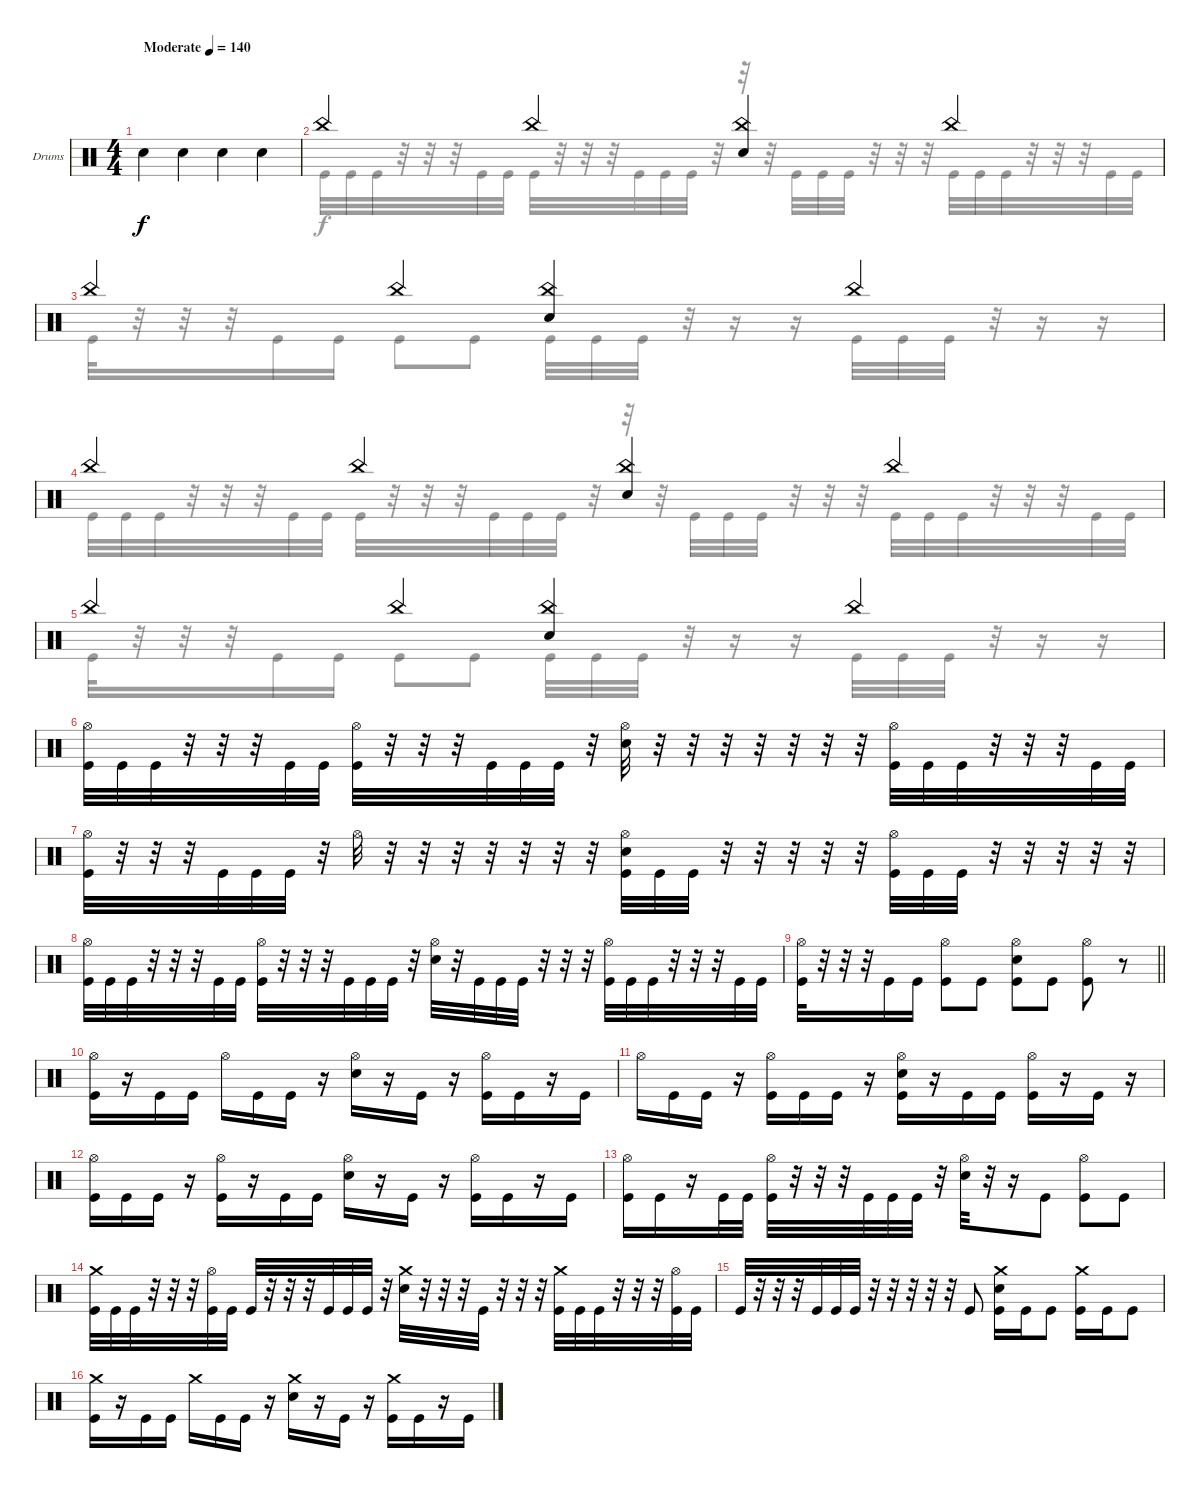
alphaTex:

\bracketExtendMode groupsimilarinstruments
\firstSystemTrackNameOrientation horizontal
\otherSystemsTrackNameOrientation horizontal
\track ("Drumkit" "Drums") {instrument percussion}
\staff {score}
\articulation defaults
\voice
\ts (4 4)
\beaming (8 2 2 2 2)
\tempo (140 "Moderate")
\clef neutral
\ks c "Snare (hit) 2".4{dy f} "Snare (hit) 2".4 "Snare (hit) 2".4 "Snare (hit) 2".4
|
"China (hit)".4 "China (hit)".4 ("China (hit)" "Snare (hit) 2").4 "China (hit)".4 |
"China (hit)".4 "China (hit)".4 ("China (hit)" "Snare (hit) 2").4 "China (hit)".4 |
"China (hit)".4 "China (hit)".4 ("China (hit)" "Snare (hit) 2").4 "China (hit)".4 |
"China (hit)".4 "China (hit)".4 ("China (hit)" "Snare (hit) 2").4 "China (hit)".4 |
("Kick (hit)" "Hi-Hat (open)").32 "Kick (hit)".32 "Kick (hit)".32 r.32 r.32 r.32 "Kick (hit)".32 "Kick (hit)".32 ("Kick (hit)" "Hi-Hat (open)").32 r.32 r.32 r.32 "Kick (hit)".32 "Kick (hit)".32 "Kick (hit)".32 r.32 ("Hi-Hat (open)" "Snare (hit) 2").32 r.32 r.32 r.32 r.32 r.32 r.32 r.32 ("Kick (hit)" "Hi-Hat (open)").32 "Kick (hit)".32 "Kick (hit)".32 r.32 r.32 r.32 "Kick (hit)".32 "Kick (hit)".32 |
("Kick (hit)" "Hi-Hat (open)").32 r.32 r.32 r.32 "Kick (hit)".32 "Kick (hit)".32 "Kick (hit)".32 r.32 "Hi-Hat (open)".32 r.32 r.32 r.32 r.32 r.32 r.32 r.32 ("Kick (hit)" "Hi-Hat (open)" "Snare (hit) 2").32 "Kick (hit)".32 "Kick (hit)".32 r.32 r.32 r.32 r.32 r.32 ("Kick (hit)" "Hi-Hat (open)").32 "Kick (hit)".32 "Kick (hit)".32 r.32 r.32 r.32 r.32 r.32 |
("Kick (hit)" "Hi-Hat (open)").32 "Kick (hit)".32 "Kick (hit)".32 r.32 r.32 r.32 "Kick (hit)".32 "Kick (hit)".32 ("Kick (hit)" "Hi-Hat (open)").32 r.32 r.32 r.32 "Kick (hit)".32 "Kick (hit)".32 "Kick (hit)".32 r.32 ("Hi-Hat (open)" "Snare (hit) 2").32 r.32 "Kick (hit)".32 "Kick (hit)".32 "Kick (hit)".32 r.32 r.32 r.32 ("Kick (hit)" "Hi-Hat (open)").32 "Kick (hit)".32 "Kick (hit)".32 r.32 r.32 r.32 "Kick (hit)".32 "Kick (hit)".32 |
\barLineRight lightlight
("Kick (hit)" "Hi-Hat (open)").32 r.32 r.32 r.32 "Kick (hit)".16 "Kick (hit)".16 ("Kick (hit)" "Hi-Hat (open)").8 "Kick (hit)".8 ("Kick (hit)" "Hi-Hat (open)" "Snare (hit) 2").8 "Kick (hit)".8 ("Kick (hit)" "Hi-Hat (open)").8 r.8 |
\section ("" "")
("Kick (hit)" "Hi-Hat (open)").16 r.16 "Kick (hit)".16 "Kick (hit)".16 "Hi-Hat (open)".16 "Kick (hit)".16 "Kick (hit)".16 r.16 ("Hi-Hat (open)" "Snare (hit) 2").16 r.16 "Kick (hit)".16 r.16 ("Kick (hit)" "Hi-Hat (open)").16 "Kick (hit)".16 r.16 "Kick (hit)".16 |
"Hi-Hat (open)".16 "Kick (hit)".16 "Kick (hit)".16 r.16 ("Kick (hit)" "Hi-Hat (open)").16 "Kick (hit)".16 "Kick (hit)".16 r.16 ("Kick (hit)" "Hi-Hat (open)" "Snare (hit) 2").16 r.16 "Kick (hit)".16 "Kick (hit)".16 ("Kick (hit)" "Hi-Hat (open)").16 r.16 "Kick (hit)".16 r.16 |
("Kick (hit)" "Hi-Hat (open)").16 "Kick (hit)".16 "Kick (hit)".16 r.16 ("Kick (hit)" "Hi-Hat (open)").16 r.16 "Kick (hit)".16 "Kick (hit)".16 ("Hi-Hat (open)" "Snare (hit) 2").16 r.16 "Kick (hit)".16 r.16 ("Kick (hit)" "Hi-Hat (open)").16 "Kick (hit)".16 r.16 "Kick (hit)".16 |
("Kick (hit)" "Hi-Hat (open)").16 "Kick (hit)".16 r.16 "Kick (hit)".32 "Kick (hit)".32 ("Kick (hit)" "Hi-Hat (open)").32 r.32 r.32 r.32 "Kick (hit)".32 "Kick (hit)".32 "Kick (hit)".32 r.32 ("Hi-Hat (open)" "Snare (hit) 2").32 r.32 r.16 "Kick (hit)".8 ("Kick (hit)" "Hi-Hat (open)").8 "Kick (hit)".8 |
("Kick (hit)" "Crash medium (hit)").32 "Kick (hit)".32 "Kick (hit)".32 r.32 r.32 r.32 ("Kick (hit)" "Hi-Hat (open)").32 "Kick (hit)".32 "Kick (hit)".32 r.32 r.32 r.32 "Kick (hit)".32 "Kick (hit)".32 "Kick (hit)".32 r.32 ("Crash medium (hit)" "Snare (hit) 2").32 r.32 r.32 r.32 "Kick (hit)".32 r.32 r.32 r.32 ("Kick (hit)" "Crash medium (hit)").32 "Kick (hit)".32 "Kick (hit)".32 r.32 r.32 r.32 ("Kick (hit)" "Hi-Hat (open)").32 "Kick (hit)".32 |
"Kick (hit)".32 r.32 r.32 r.32 "Kick (hit)".32 "Kick (hit)".32 "Kick (hit)".32 r.32 r.32 r.32 r.32 r.32 "Kick (hit)".8 ("Kick (hit)" "Crash medium (hit)" "Snare (hit) 2").16 "Kick (hit)".16 "Kick (hit)".8 ("Kick (hit)" "Crash medium (hit)").16 "Kick (hit)".16 "Kick (hit)".8 |
("Kick (hit)" "Crash medium (hit)").16 r.16 "Kick (hit)".16 "Kick (hit)".16 "Crash medium (hit)".16 "Kick (hit)".16 "Kick (hit)".16 r.16 ("Crash medium (hit)" "Snare (hit) 2").16 r.16 "Kick (hit)".16 r.16 ("Kick (hit)" "Crash medium (hit)").16 "Kick (hit)".16 r.16 "Kick (hit)".16
\voice
\clef neutral
\ottava regular
\simile none
\ks c
|
"Kick (hit)".32 "Kick (hit)".32 "Kick (hit)".32 r.32 r.32 r.32 "Kick (hit)".32 "Kick (hit)".32 "Kick (hit)".32 r.32 r.32 r.32 "Kick (hit)".32 "Kick (hit)".32 "Kick (hit)".32 r.32 r.32 r.32 "Kick (hit)".32 "Kick (hit)".32 "Kick (hit)".32 r.32 r.32 r.32 "Kick (hit)".32 "Kick (hit)".32 "Kick (hit)".32 r.32 r.32 r.32 "Kick (hit)".32 "Kick (hit)".32 |
"Kick (hit)".32 r.32 r.32 r.32 "Kick (hit)".16 "Kick (hit)".16 "Kick (hit)".8 "Kick (hit)".8 "Kick (hit)".32 "Kick (hit)".32 "Kick (hit)".32 r.32 r.16 r.16 "Kick (hit)".32 "Kick (hit)".32 "Kick (hit)".32 r.32 r.16 r.16 |
"Kick (hit)".32 "Kick (hit)".32 "Kick (hit)".32 r.32 r.32 r.32 "Kick (hit)".32 "Kick (hit)".32 "Kick (hit)".32 r.32 r.32 r.32 "Kick (hit)".32 "Kick (hit)".32 "Kick (hit)".32 r.32 r.32 r.32 "Kick (hit)".32 "Kick (hit)".32 "Kick (hit)".32 r.32 r.32 r.32 "Kick (hit)".32 "Kick (hit)".32 "Kick (hit)".32 r.32 r.32 r.32 "Kick (hit)".32 "Kick (hit)".32 |
"Kick (hit)".32 r.32 r.32 r.32 "Kick (hit)".16 "Kick (hit)".16 "Kick (hit)".8 "Kick (hit)".8 "Kick (hit)".32 "Kick (hit)".32 "Kick (hit)".32 r.32 r.16 r.16 "Kick (hit)".32 "Kick (hit)".32 "Kick (hit)".32 r.32 r.16 r.16 |
|
|
|
\barLineRight lightlight
|
|
|
|
|
|
|
